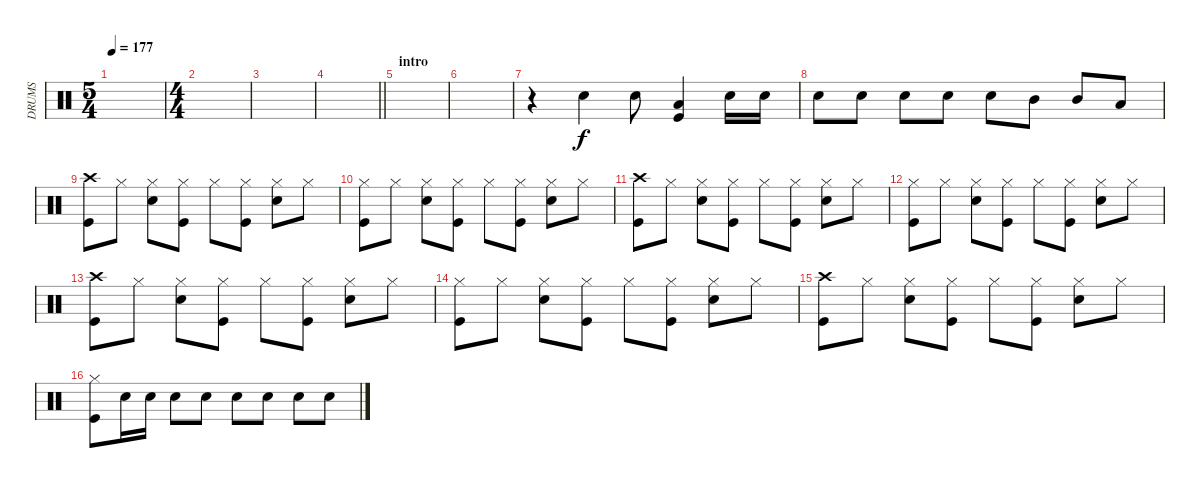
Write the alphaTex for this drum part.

\track ("DRUMS" "DRUMS") {instrument percussion}
\staff {score}
\articulation defaults
\ts (5 4)
\tempo 177
\clef neutral
\ks c
|
\ts (4 4)
|
|
\barLineRight lightlight
|
\section ("" "intro")
|
|
r.4 "Snare (hit) 2".4 "Snare (hit) 2".8 ("Low Tom (hit)" "Kick (hit)").4 "Snare (hit) 2".16 "Snare (hit) 2".16 |
"Snare (hit) 2".8 "Snare (hit) 2".8 "Snare (hit) 2".8 "Snare (hit) 2".8 "Snare (hit) 2".8 "Mid Tom (hit)".8 "Mid Tom (hit)".8 "Low Tom (hit)".8 |
("Crash high (hit)" "Kick (hit)").8 "Hi-Hat (closed)".8 ("Hi-Hat (closed)" "Snare (hit) 2").8 ("Hi-Hat (closed)" "Kick (hit)").8 "Hi-Hat (closed)".8 ("Hi-Hat (closed)" "Kick (hit)").8 ("Hi-Hat (closed)" "Snare (hit) 2").8 "Hi-Hat (closed)".8 |
("Hi-Hat (closed)" "Kick (hit)").8 "Hi-Hat (closed)".8 ("Hi-Hat (closed)" "Snare (hit) 2").8 ("Hi-Hat (closed)" "Kick (hit)").8 "Hi-Hat (closed)".8 ("Hi-Hat (closed)" "Kick (hit)").8 ("Hi-Hat (closed)" "Snare (hit) 2").8 "Hi-Hat (closed)".8 |
("Crash high (hit)" "Kick (hit)").8 "Hi-Hat (closed)".8 ("Hi-Hat (closed)" "Snare (hit) 2").8 ("Hi-Hat (closed)" "Kick (hit)").8 "Hi-Hat (closed)".8 ("Hi-Hat (closed)" "Kick (hit)").8 ("Hi-Hat (closed)" "Snare (hit) 2").8 "Hi-Hat (closed)".8 |
("Hi-Hat (closed)" "Kick (hit)").8 "Hi-Hat (closed)".8 ("Hi-Hat (closed)" "Snare (hit) 2").8 ("Hi-Hat (closed)" "Kick (hit)").8 "Hi-Hat (closed)".8 ("Hi-Hat (closed)" "Kick (hit)").8 ("Hi-Hat (closed)" "Snare (hit) 2").8 "Hi-Hat (closed)".8 |
("Crash high (hit)" "Kick (hit)").8 "Hi-Hat (closed)".8 ("Hi-Hat (closed)" "Snare (hit) 2").8 ("Hi-Hat (closed)" "Kick (hit)").8 "Hi-Hat (closed)".8 ("Hi-Hat (closed)" "Kick (hit)").8 ("Hi-Hat (closed)" "Snare (hit) 2").8 "Hi-Hat (closed)".8 |
("Hi-Hat (closed)" "Kick (hit)").8 "Hi-Hat (closed)".8 ("Hi-Hat (closed)" "Snare (hit) 2").8 ("Hi-Hat (closed)" "Kick (hit)").8 "Hi-Hat (closed)".8 ("Hi-Hat (closed)" "Kick (hit)").8 ("Hi-Hat (closed)" "Snare (hit) 2").8 "Hi-Hat (closed)".8 |
("Crash high (hit)" "Kick (hit)").8 "Hi-Hat (closed)".8 ("Hi-Hat (closed)" "Snare (hit) 2").8 ("Hi-Hat (closed)" "Kick (hit)").8 "Hi-Hat (closed)".8 ("Hi-Hat (closed)" "Kick (hit)").8 ("Hi-Hat (closed)" "Snare (hit) 2").8 "Hi-Hat (closed)".8 |
("Hi-Hat (closed)" "Kick (hit)").8 "Snare (hit) 2".16 "Snare (hit) 2".16 "Snare (hit) 2".8 "Snare (hit) 2".8 "Snare (hit) 2".8 "Snare (hit) 2".8 "Snare (hit) 2".8 "Snare (hit) 2".8
